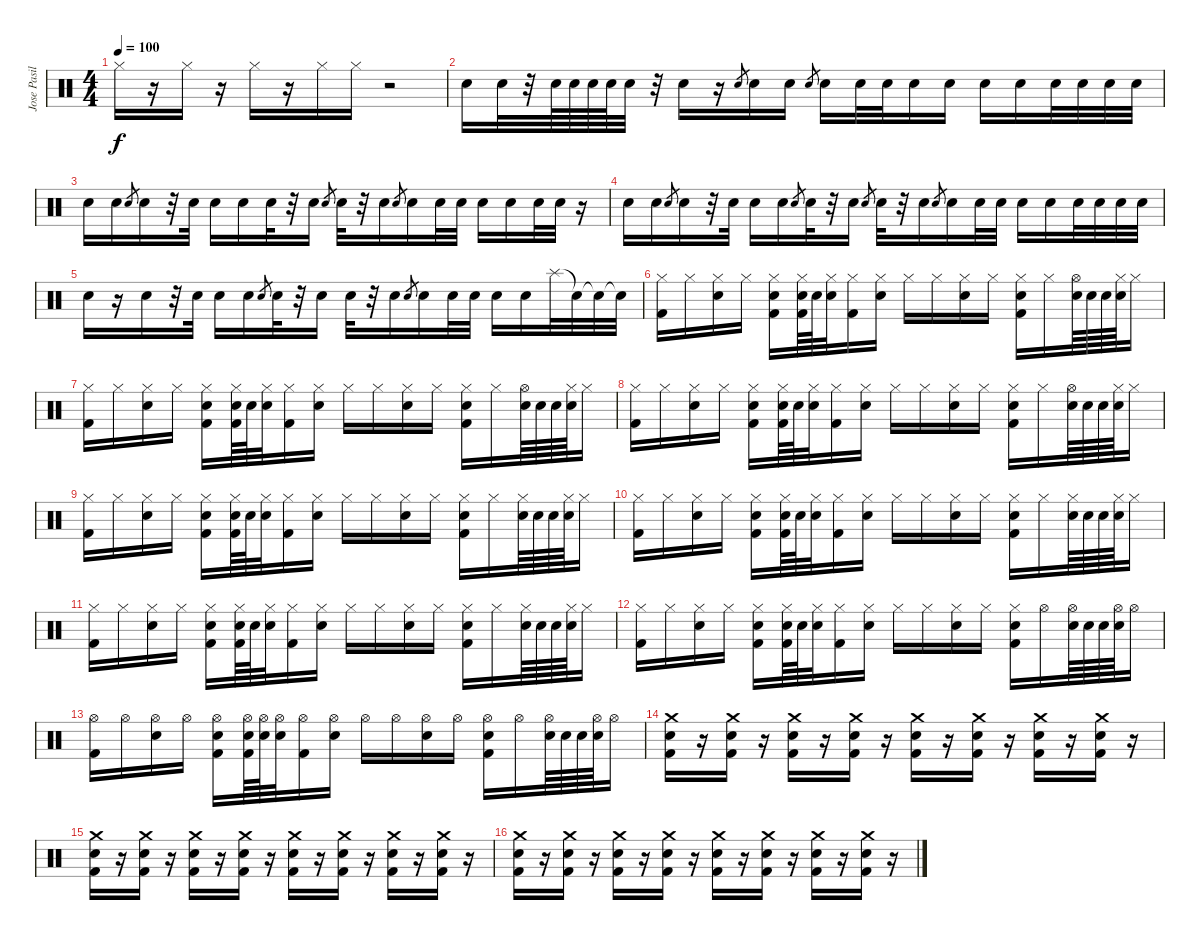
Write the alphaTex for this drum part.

\track ("Jose Pasillas" "Jose Pasil") {instrument percussion}
\staff {score}
\articulation defaults
\ts (4 4)
\tempo 100
\clef neutral
\ks c "Hi-Hat (closed)".16{dy f}
r.16 "Hi-Hat (closed)".16 r.16 "Hi-Hat (closed)".16 r.16 "Hi-Hat (closed)".16 "Hi-Hat (closed)".16 r.2 |
"Electric Snare (hit)".16 "Electric Snare (hit)".32 r.32 "Electric Snare (hit)".64 "Electric Snare (hit)".64 "Electric Snare (hit)".64 "Electric Snare (hit)".64 "Electric Snare (hit)".32 r.32 "Electric Snare (hit)".16 r.16 "Electric Snare (hit)".8{gr} "Electric Snare (hit)".16 "Electric Snare (hit)".16 "Electric Snare (hit)".8{gr} "Electric Snare (hit)".16 "Electric Snare (hit)".32 "Electric Snare (hit)".32 "Electric Snare (hit)".16 "Electric Snare (hit)".16 "Electric Snare (hit)".16 "Electric Snare (hit)".16 "Electric Snare (hit)".32 "Electric Snare (hit)".32 "Electric Snare (hit)".32 "Electric Snare (hit)".32 |
"Electric Snare (hit)".16 "Electric Snare (hit)".16 "Electric Snare (hit)".8{gr} "Electric Snare (hit)".16 r.32 "Electric Snare (hit)".32 "Electric Snare (hit)".16 "Electric Snare (hit)".16 "Electric Snare (hit)".32 r.32 "Electric Snare (hit)".16 "Electric Snare (hit)".8{gr} "Electric Snare (hit)".32 r.32 "Electric Snare (hit)".16 "Electric Snare (hit)".8{gr} "Electric Snare (hit)".16 "Electric Snare (hit)".32 "Electric Snare (hit)".32 "Electric Snare (hit)".16 "Electric Snare (hit)".16 "Electric Snare (hit)".32 "Electric Snare (hit)".32 r.16 |
"Electric Snare (hit)".16 "Electric Snare (hit)".16 "Electric Snare (hit)".8{gr} "Electric Snare (hit)".16 r.32 "Electric Snare (hit)".32 "Electric Snare (hit)".16 "Electric Snare (hit)".16 "Electric Snare (hit)".8{gr} "Electric Snare (hit)".32 r.32 "Electric Snare (hit)".16 "Electric Snare (hit)".8{gr} "Electric Snare (hit)".32 r.32 "Electric Snare (hit)".16 "Electric Snare (hit)".8{gr} "Electric Snare (hit)".16 "Electric Snare (hit)".32 "Electric Snare (hit)".32 "Electric Snare (hit)".16 "Electric Snare (hit)".16 "Electric Snare (hit)".32 "Electric Snare (hit)".32 "Electric Snare (hit)".32 "Electric Snare (hit)".32 |
"Electric Snare (hit)".16 r.16 "Electric Snare (hit)".16 r.32 "Electric Snare (hit)".32 "Electric Snare (hit)".16 "Electric Snare (hit)".16 "Electric Snare (hit)".8{gr} "Electric Snare (hit)".32 r.32 "Electric Snare (hit)".16 "Electric Snare (hit)".32 r.32 "Electric Snare (hit)".16 "Electric Snare (hit)".8{gr} "Electric Snare (hit)".16 "Electric Snare (hit)".32 "Electric Snare (hit)".32 "Electric Snare (hit)".16 "Electric Snare (hit)".16 "Splash (hit)".32 "Electric Snare (hit)"{t}.32 "Electric Snare (hit)"{t}.32 "Electric Snare (hit)"{t}.32 |
("Hi-Hat (closed)" "Kick (hit) 2").16 "Hi-Hat (closed)".16 ("Electric Snare (hit)" "Hi-Hat (closed)").16 "Hi-Hat (closed)".16 ("Hi-Hat (closed)" "Electric Snare (hit)" "Kick (hit) 2").16 ("Kick (hit) 2" "Electric Snare (hit)" "Hi-Hat (closed)").64 "Electric Snare (hit)".64 ("Electric Snare (hit)" "Hi-Hat (closed)").32 ("Hi-Hat (closed)" "Kick (hit) 2").16 ("Electric Snare (hit)" "Hi-Hat (closed)").16 "Hi-Hat (closed)".16 "Hi-Hat (closed)".16 ("Electric Snare (hit)" "Hi-Hat (closed)").16 "Hi-Hat (closed)".16 ("Electric Snare (hit)" "Hi-Hat (closed)" "Kick (hit) 2").16 "Hi-Hat (closed)".16 ("Electric Snare (hit)" "Hi-Hat (open)").64 "Electric Snare (hit)".64 "Electric Snare (hit)".64 ("Electric Snare (hit)" "Hi-Hat (closed)").64 "Hi-Hat (closed)".16 |
("Hi-Hat (closed)" "Kick (hit) 2").16 "Hi-Hat (closed)".16 ("Electric Snare (hit)" "Hi-Hat (closed)").16 "Hi-Hat (closed)".16 ("Hi-Hat (closed)" "Electric Snare (hit)" "Kick (hit) 2").16 ("Kick (hit) 2" "Electric Snare (hit)" "Hi-Hat (closed)").64 "Electric Snare (hit)".64 ("Electric Snare (hit)" "Hi-Hat (closed)").32 ("Hi-Hat (closed)" "Kick (hit) 2").16 ("Electric Snare (hit)" "Hi-Hat (closed)").16 "Hi-Hat (closed)".16 "Hi-Hat (closed)".16 ("Electric Snare (hit)" "Hi-Hat (closed)").16 "Hi-Hat (closed)".16 ("Electric Snare (hit)" "Hi-Hat (closed)" "Kick (hit) 2").16 "Hi-Hat (closed)".16 ("Electric Snare (hit)" "Hi-Hat (open)").64 "Electric Snare (hit)".64 "Electric Snare (hit)".64 ("Electric Snare (hit)" "Hi-Hat (closed)").64 "Hi-Hat (closed)".16 |
("Hi-Hat (closed)" "Kick (hit) 2").16 "Hi-Hat (closed)".16 ("Electric Snare (hit)" "Hi-Hat (closed)").16 "Hi-Hat (closed)".16 ("Hi-Hat (closed)" "Electric Snare (hit)" "Kick (hit) 2").16 ("Kick (hit) 2" "Electric Snare (hit)" "Hi-Hat (closed)").64 "Electric Snare (hit)".64 ("Electric Snare (hit)" "Hi-Hat (closed)").32 ("Hi-Hat (closed)" "Kick (hit) 2").16 ("Electric Snare (hit)" "Hi-Hat (closed)").16 "Hi-Hat (closed)".16 "Hi-Hat (closed)".16 ("Electric Snare (hit)" "Hi-Hat (closed)").16 "Hi-Hat (closed)".16 ("Electric Snare (hit)" "Hi-Hat (closed)" "Kick (hit) 2").16 "Hi-Hat (closed)".16 ("Electric Snare (hit)" "Hi-Hat (open)").64 "Electric Snare (hit)".64 "Electric Snare (hit)".64 ("Electric Snare (hit)" "Hi-Hat (closed)").64 "Hi-Hat (closed)".16 |
("Hi-Hat (closed)" "Kick (hit) 2").16 "Hi-Hat (closed)".16 ("Electric Snare (hit)" "Hi-Hat (closed)").16 "Hi-Hat (closed)".16 ("Hi-Hat (closed)" "Electric Snare (hit)" "Kick (hit) 2").16 ("Kick (hit) 2" "Electric Snare (hit)" "Hi-Hat (closed)").64 "Electric Snare (hit)".64 ("Electric Snare (hit)" "Hi-Hat (closed)").32 ("Hi-Hat (closed)" "Kick (hit) 2").16 ("Electric Snare (hit)" "Hi-Hat (closed)").16 "Hi-Hat (closed)".16 "Hi-Hat (closed)".16 ("Electric Snare (hit)" "Hi-Hat (closed)").16 "Hi-Hat (closed)".16 ("Electric Snare (hit)" "Hi-Hat (closed)" "Kick (hit) 2").16 "Hi-Hat (closed)".16 ("Electric Snare (hit)" "Hi-Hat (closed)").64 "Electric Snare (hit)".64 "Electric Snare (hit)".64 ("Electric Snare (hit)" "Hi-Hat (closed)").64 "Hi-Hat (closed)".16 |
("Hi-Hat (closed)" "Kick (hit) 2").16 "Hi-Hat (closed)".16 ("Electric Snare (hit)" "Hi-Hat (closed)").16 "Hi-Hat (closed)".16 ("Hi-Hat (closed)" "Electric Snare (hit)" "Kick (hit) 2").16 ("Kick (hit) 2" "Electric Snare (hit)" "Hi-Hat (closed)").64 "Electric Snare (hit)".64 ("Electric Snare (hit)" "Hi-Hat (closed)").32 ("Hi-Hat (closed)" "Kick (hit) 2").16 ("Electric Snare (hit)" "Hi-Hat (closed)").16 "Hi-Hat (closed)".16 "Hi-Hat (closed)".16 ("Electric Snare (hit)" "Hi-Hat (closed)").16 "Hi-Hat (closed)".16 ("Electric Snare (hit)" "Hi-Hat (closed)" "Kick (hit) 2").16 "Hi-Hat (closed)".16 ("Electric Snare (hit)" "Hi-Hat (closed)").64 "Electric Snare (hit)".64 "Electric Snare (hit)".64 ("Electric Snare (hit)" "Hi-Hat (closed)").64 "Hi-Hat (closed)".16 |
("Hi-Hat (closed)" "Kick (hit) 2").16 "Hi-Hat (closed)".16 ("Electric Snare (hit)" "Hi-Hat (closed)").16 "Hi-Hat (closed)".16 ("Hi-Hat (closed)" "Electric Snare (hit)" "Kick (hit) 2").16 ("Kick (hit) 2" "Electric Snare (hit)" "Hi-Hat (closed)").64 "Electric Snare (hit)".64 ("Electric Snare (hit)" "Hi-Hat (closed)").32 ("Hi-Hat (closed)" "Kick (hit) 2").16 ("Electric Snare (hit)" "Hi-Hat (closed)").16 "Hi-Hat (closed)".16 "Hi-Hat (closed)".16 ("Electric Snare (hit)" "Hi-Hat (closed)").16 "Hi-Hat (closed)".16 ("Electric Snare (hit)" "Hi-Hat (closed)" "Kick (hit) 2").16 "Hi-Hat (closed)".16 ("Electric Snare (hit)" "Hi-Hat (closed)").64 "Electric Snare (hit)".64 "Electric Snare (hit)".64 ("Electric Snare (hit)" "Hi-Hat (closed)").64 "Hi-Hat (closed)".16 |
("Hi-Hat (closed)" "Kick (hit) 2").16 "Hi-Hat (closed)".16 ("Electric Snare (hit)" "Hi-Hat (closed)").16 "Hi-Hat (closed)".16 ("Hi-Hat (closed)" "Electric Snare (hit)" "Kick (hit) 2").16 ("Kick (hit) 2" "Electric Snare (hit)" "Hi-Hat (closed)").64 "Electric Snare (hit)".64 ("Electric Snare (hit)" "Hi-Hat (closed)").32 ("Hi-Hat (closed)" "Kick (hit) 2").16 ("Electric Snare (hit)" "Hi-Hat (closed)").16 "Hi-Hat (closed)".16 "Hi-Hat (closed)".16 ("Electric Snare (hit)" "Hi-Hat (closed)").16 "Hi-Hat (closed)".16 ("Electric Snare (hit)" "Hi-Hat (closed)" "Kick (hit) 2").16 "Hi-Hat (open)".16 ("Electric Snare (hit)" "Hi-Hat (open)").64 "Electric Snare (hit)".64 "Electric Snare (hit)".64 ("Electric Snare (hit)" "Hi-Hat (open)").64 "Hi-Hat (open)".16 |
("Hi-Hat (open)" "Kick (hit) 2").16 "Hi-Hat (open)".16 ("Electric Snare (hit)" "Hi-Hat (open)").16 "Hi-Hat (open)".16 ("Hi-Hat (open)" "Electric Snare (hit)" "Kick (hit) 2").16 ("Kick (hit) 2" "Electric Snare (hit)" "Hi-Hat (open)").64 ("Electric Snare (hit)" "Hi-Hat (open)").64 ("Electric Snare (hit)" "Hi-Hat (open)").32 ("Hi-Hat (open)" "Kick (hit) 2").16 ("Electric Snare (hit)" "Hi-Hat (open)").16 "Hi-Hat (open)".16 "Hi-Hat (open)".16 ("Electric Snare (hit)" "Hi-Hat (open)").16 "Hi-Hat (open)".16 ("Electric Snare (hit)" "Hi-Hat (open)" "Kick (hit) 2").16 "Hi-Hat (open)".16 ("Electric Snare (hit)" "Hi-Hat (open)").64 "Electric Snare (hit)".64 "Electric Snare (hit)".64 ("Electric Snare (hit)" "Hi-Hat (open)").64 "Hi-Hat (open)".16 |
("Crash medium (hit)" "Electric Snare (hit)" "Kick (hit) 2").16 r.16 ("Crash medium (hit)" "Electric Snare (hit)" "Kick (hit) 2").16 r.16 ("Crash medium (hit)" "Electric Snare (hit)" "Kick (hit) 2").16 r.16 ("Crash medium (hit)" "Electric Snare (hit)" "Kick (hit) 2").16 r.16 ("Crash medium (hit)" "Electric Snare (hit)" "Kick (hit) 2").16 r.16 ("Crash medium (hit)" "Electric Snare (hit)" "Kick (hit) 2").16 r.16 ("Crash medium (hit)" "Electric Snare (hit)" "Kick (hit) 2").16 r.16 ("Crash medium (hit)" "Electric Snare (hit)" "Kick (hit) 2").16 r.16 |
("Crash medium (hit)" "Electric Snare (hit)" "Kick (hit) 2").16 r.16 ("Crash medium (hit)" "Electric Snare (hit)" "Kick (hit) 2").16 r.16 ("Crash medium (hit)" "Electric Snare (hit)" "Kick (hit) 2").16 r.16 ("Crash medium (hit)" "Electric Snare (hit)" "Kick (hit) 2").16 r.16 ("Crash medium (hit)" "Electric Snare (hit)" "Kick (hit) 2").16 r.16 ("Crash medium (hit)" "Electric Snare (hit)" "Kick (hit) 2").16 r.16 ("Crash medium (hit)" "Electric Snare (hit)" "Kick (hit) 2").16 r.16 ("Crash medium (hit)" "Electric Snare (hit)" "Kick (hit) 2").16 r.16 |
("Crash medium (hit)" "Electric Snare (hit)" "Kick (hit) 2").16 r.16 ("Crash medium (hit)" "Electric Snare (hit)" "Kick (hit) 2").16 r.16 ("Crash medium (hit)" "Electric Snare (hit)" "Kick (hit) 2").16 r.16 ("Crash medium (hit)" "Electric Snare (hit)" "Kick (hit) 2").16 r.16 ("Crash medium (hit)" "Electric Snare (hit)" "Kick (hit) 2").16 r.16 ("Crash medium (hit)" "Electric Snare (hit)" "Kick (hit) 2").16 r.16 ("Crash medium (hit)" "Electric Snare (hit)" "Kick (hit) 2").16 r.16 ("Crash medium (hit)" "Electric Snare (hit)" "Kick (hit) 2").16 r.16
